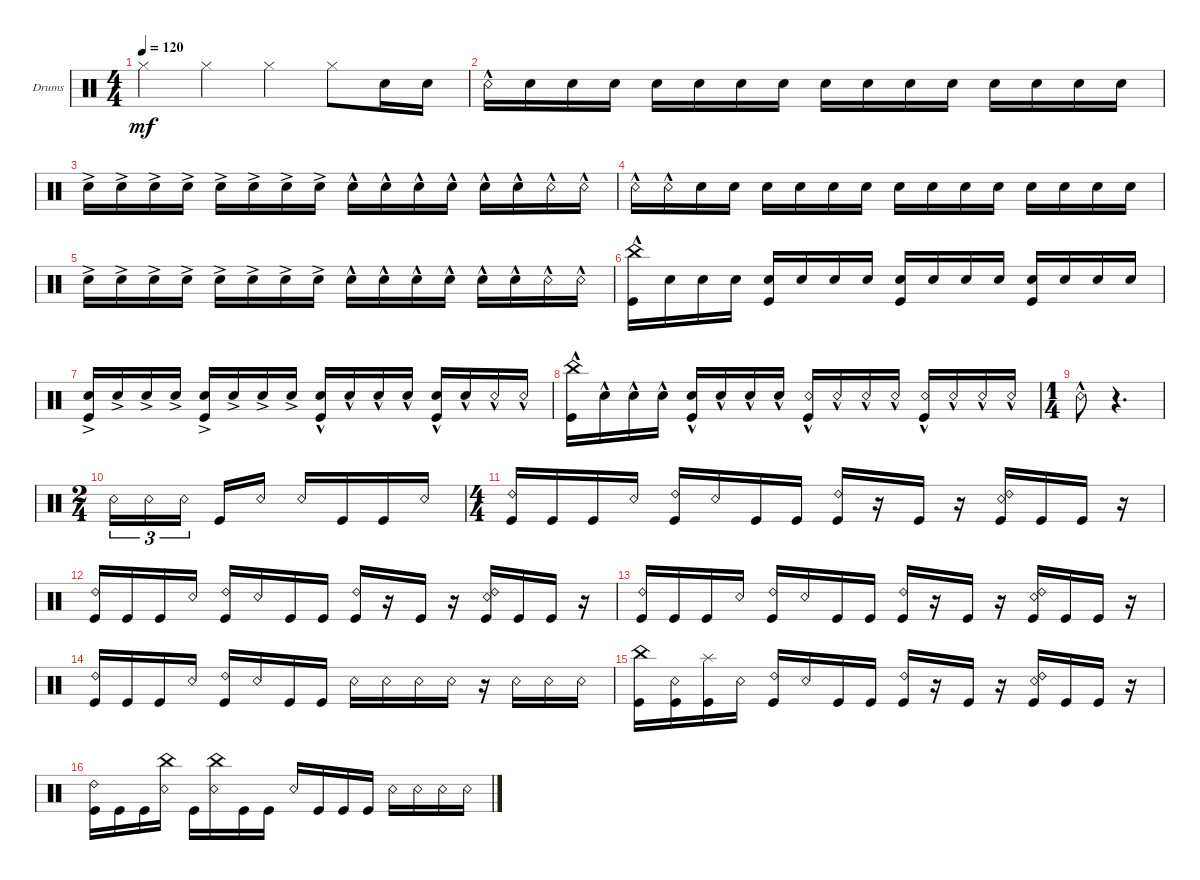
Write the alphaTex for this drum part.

\defaultSystemsLayout 4
\bracketExtendMode groupsimilarinstruments
\firstSystemTrackNameOrientation horizontal
\otherSystemsTrackNameOrientation horizontal
\track ("Drumkit" "Drums") {instrument percussion}
\staff {score}
\articulation defaults
\ts (4 4)
\tempo 120
\clef neutral
\ks c "Hi-Hat (closed)".4{dy mf} "Hi-Hat (closed)".4 "Hi-Hat (closed)".4 "Hi-Hat (closed)".8 "Snare (hit) 2".16 "Snare (hit) 2".16
|
"Snare (rim shot)"{hac}.16 "Snare (hit) 2".16 "Snare (hit) 2".16 "Snare (hit) 2".16 "Snare (hit) 2".16 "Snare (hit) 2".16 "Snare (hit) 2".16 "Snare (hit) 2".16 "Snare (hit) 2".16 "Snare (hit) 2".16 "Snare (hit) 2".16 "Snare (hit) 2".16 "Snare (hit) 2".16 "Snare (hit) 2".16 "Snare (hit) 2".16 "Snare (hit) 2".16 |
"Snare (hit) 2"{ac}.16 "Snare (hit) 2"{ac}.16 "Snare (hit) 2"{ac}.16 "Snare (hit) 2"{ac}.16 "Snare (hit) 2"{ac}.16 "Snare (hit) 2"{ac}.16 "Snare (hit) 2"{ac}.16 "Snare (hit) 2"{ac}.16 "Snare (hit) 2"{hac}.16 "Snare (hit) 2"{hac}.16 "Snare (hit) 2"{hac}.16 "Snare (hit) 2"{hac}.16 "Snare (hit) 2"{hac}.16 "Snare (hit) 2"{hac}.16 "Snare (rim shot)"{hac}.16 "Snare (rim shot)"{hac}.16 |
"Snare (rim shot)"{hac}.16 "Snare (rim shot)"{hac}.16 "Snare (hit) 2".16 "Snare (hit) 2".16 "Snare (hit) 2".16 "Snare (hit) 2".16 "Snare (hit) 2".16 "Snare (hit) 2".16 "Snare (hit) 2".16 "Snare (hit) 2".16 "Snare (hit) 2".16 "Snare (hit) 2".16 "Snare (hit) 2".16 "Snare (hit) 2".16 "Snare (hit) 2".16 "Snare (hit) 2".16 |
"Snare (hit) 2"{ac}.16 "Snare (hit) 2"{ac}.16 "Snare (hit) 2"{ac}.16 "Snare (hit) 2"{ac}.16 "Snare (hit) 2"{ac}.16 "Snare (hit) 2"{ac}.16 "Snare (hit) 2"{ac}.16 "Snare (hit) 2"{ac}.16 "Snare (hit) 2"{hac}.16 "Snare (hit) 2"{hac}.16 "Snare (hit) 2"{hac}.16 "Snare (hit) 2"{hac}.16 "Snare (hit) 2"{hac}.16 "Snare (hit) 2"{hac}.16 "Snare (rim shot)"{hac}.16 "Snare (rim shot)"{hac}.16 |
("China (hit)" "Kick (hit)"{hac}).16 "Snare (hit) 2".16 "Snare (hit) 2".16 "Snare (hit) 2".16 ("Snare (hit) 2" "Kick (hit)").16 "Snare (hit) 2".16 "Snare (hit) 2".16 "Snare (hit) 2".16 ("Snare (hit) 2" "Kick (hit)").16 "Snare (hit) 2".16 "Snare (hit) 2".16 "Snare (hit) 2".16 ("Snare (hit) 2" "Kick (hit)").16 "Snare (hit) 2".16 "Snare (hit) 2".16 "Snare (hit) 2".16 |
("Snare (hit) 2"{ac} "Kick (hit)").16 "Snare (hit) 2"{ac}.16 "Snare (hit) 2"{ac}.16 "Snare (hit) 2"{ac}.16 ("Snare (hit) 2"{ac} "Kick (hit)").16 "Snare (hit) 2"{ac}.16 "Snare (hit) 2"{ac}.16 "Snare (hit) 2"{ac}.16 ("Snare (hit) 2"{hac} "Kick (hit)").16 "Snare (hit) 2"{hac}.16 "Snare (hit) 2"{hac}.16 "Snare (hit) 2"{hac}.16 ("Snare (hit) 2"{hac} "Kick (hit)").16 "Snare (hit) 2"{hac}.16 "Snare (rim shot)"{hac}.16 "Snare (rim shot)"{hac}.16 |
("China (hit)" "Kick (hit)"{hac}).16 "Snare (hit) 2"{hac}.16 "Snare (hit) 2"{hac}.16 "Snare (hit) 2"{hac}.16 ("Snare (hit) 2"{hac} "Kick (hit)"{hac}).16 "Snare (hit) 2"{hac}.16 "Snare (hit) 2"{hac}.16 "Snare (hit) 2"{hac}.16 ("Snare (rim shot)"{hac} "Kick (hit)"{hac}).16 "Snare (rim shot)"{hac}.16 "Snare (rim shot)"{hac}.16 "Snare (rim shot)"{hac}.16 ("Snare (rim shot)"{hac} "Kick (hit)"{hac}).16 "Snare (rim shot)"{hac}.16 "Snare (rim shot)"{hac}.16 "Snare (rim shot)"{hac}.16 |
\ts (1 4)
"Snare (rim shot)"{hac}.8 r.4{d} |
\ts (2 4)
"Snare (rim shot)".16{tu (3 2)} "Snare (rim shot)".16{tu (3 2)} "Snare (rim shot)".16{tu (3 2)} "Kick (hit)".16 "Snare (rim shot)".16 "Snare (rim shot)".16 "Kick (hit)".16 "Kick (hit)".16 "Snare (rim shot)".16 |
\ts (4 4)
("Kick (hit)" "Ride (bell) 2").16 "Kick (hit)".16 "Kick (hit)".16 "Snare (rim shot)".16 ("Kick (hit)" "Ride (bell) 2").16 "Snare (rim shot)".16 "Kick (hit)".16 "Kick (hit)".16 ("Kick (hit)" "Ride (bell) 2").16 r.16 "Kick (hit)".16 r.16 ("Kick (hit)" "Ride (bell) 2" "Snare (rim shot)").16 "Kick (hit)".16 "Kick (hit)".16 r.16 |
("Kick (hit)" "Ride (bell) 2").16 "Kick (hit)".16 "Kick (hit)".16 "Snare (rim shot)".16 ("Kick (hit)" "Ride (bell) 2").16 "Snare (rim shot)".16 "Kick (hit)".16 "Kick (hit)".16 ("Kick (hit)" "Ride (bell) 2").16 r.16 "Kick (hit)".16 r.16 ("Kick (hit)" "Ride (bell) 2" "Snare (rim shot)").16 "Kick (hit)".16 "Kick (hit)".16 r.16 |
("Kick (hit)" "Ride (bell) 2").16 "Kick (hit)".16 "Kick (hit)".16 "Snare (rim shot)".16 ("Kick (hit)" "Ride (bell) 2").16 "Snare (rim shot)".16 "Kick (hit)".16 "Kick (hit)".16 ("Kick (hit)" "Ride (bell) 2").16 r.16 "Kick (hit)".16 r.16 ("Kick (hit)" "Ride (bell) 2" "Snare (rim shot)").16 "Kick (hit)".16 "Kick (hit)".16 r.16 |
("Kick (hit)" "Ride (bell) 2").16 "Kick (hit)".16 "Kick (hit)".16 "Snare (rim shot)".16 ("Kick (hit)" "Ride (bell) 2").16 "Snare (rim shot)".16 "Kick (hit)".16 "Kick (hit)".16 "Snare (rim shot)".16 "Snare (rim shot)".16 "Snare (rim shot)".16 "Snare (rim shot)".16 r.16 "Snare (rim shot)".16 "Snare (rim shot)".16 "Snare (rim shot)".16 |
("Kick (hit)" "China (hit)").16 ("Kick (hit)" "Snare (rim shot)").16 ("Kick (hit)" "Splash (hit)").16 "Snare (rim shot)".16 ("Kick (hit)" "Ride (bell) 2").16 "Snare (rim shot)".16 "Kick (hit)".16 "Kick (hit)".16 ("Kick (hit)" "Ride (bell) 2").16 r.16 "Kick (hit)".16 r.16 ("Kick (hit)" "Snare (rim shot)" "Ride (bell) 2").16 "Kick (hit)".16 "Kick (hit)".16 r.16 |
("Kick (hit)" "Ride (bell) 2").16 "Kick (hit)".16 "Kick (hit)".16 ("Snare (rim shot)" "China (hit)").16 "Kick (hit)".16 ("Snare (rim shot)" "China (hit)").16 "Kick (hit)".16 "Kick (hit)".16 "Snare (rim shot)".16 "Kick (hit)".16 "Kick (hit)".16 "Kick (hit)".16 "Snare (rim shot)".16 "Snare (rim shot)".16 "Snare (rim shot)".16 "Snare (rim shot)".16
